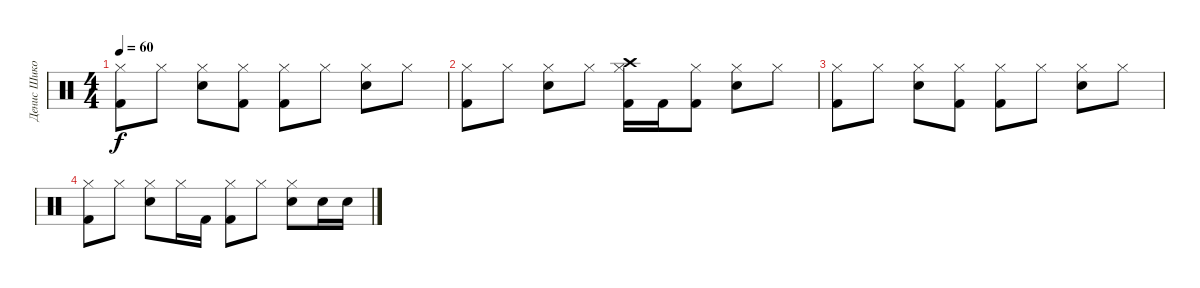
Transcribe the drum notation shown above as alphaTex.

\track ("Денис Шиков" "Денис Шико") {instrument percussion}
\staff {score}
\articulation defaults
\ts (4 4)
\tempo 60
\clef neutral
\ks c
("Hi-Hat (closed)" "Kick (hit) 2").8{dy f} "Hi-Hat (closed)".8 ("Hi-Hat (closed)" "Snare (hit) 2").8 ("Hi-Hat (closed)" "Kick (hit) 2").8 ("Hi-Hat (closed)" "Kick (hit) 2").8 "Hi-Hat (closed)".8 ("Hi-Hat (closed)" "Snare (hit) 2").8 "Hi-Hat (closed)".8 |
("Hi-Hat (closed)" "Kick (hit) 2").8{volume 0} "Hi-Hat (closed)".8 ("Hi-Hat (closed)" "Snare (hit) 2").8 "Hi-Hat (closed)".8 ("Crash high (hit)" "Hi-Hat (closed)" "Kick (hit) 2").16 "Kick (hit) 2".16 ("Hi-Hat (closed)" "Kick (hit) 2").8 ("Hi-Hat (closed)" "Snare (hit) 2").8 "Hi-Hat (closed)".8 |
("Hi-Hat (closed)" "Kick (hit) 2").8 "Hi-Hat (closed)".8 ("Hi-Hat (closed)" "Snare (hit) 2").8 ("Hi-Hat (closed)" "Kick (hit) 2").8 ("Hi-Hat (closed)" "Kick (hit) 2").8 "Hi-Hat (closed)".8 ("Hi-Hat (closed)" "Snare (hit) 2").8 "Hi-Hat (closed)".8 |
("Hi-Hat (closed)" "Kick (hit) 2").8 "Hi-Hat (closed)".8 ("Hi-Hat (closed)" "Snare (hit) 2").8 "Hi-Hat (closed)".16 "Kick (hit) 2".16 ("Hi-Hat (closed)" "Kick (hit) 2").8 "Hi-Hat (closed)".8 ("Hi-Hat (closed)" "Snare (hit) 2").8 "Snare (hit) 2".16 "Snare (hit) 2".16
